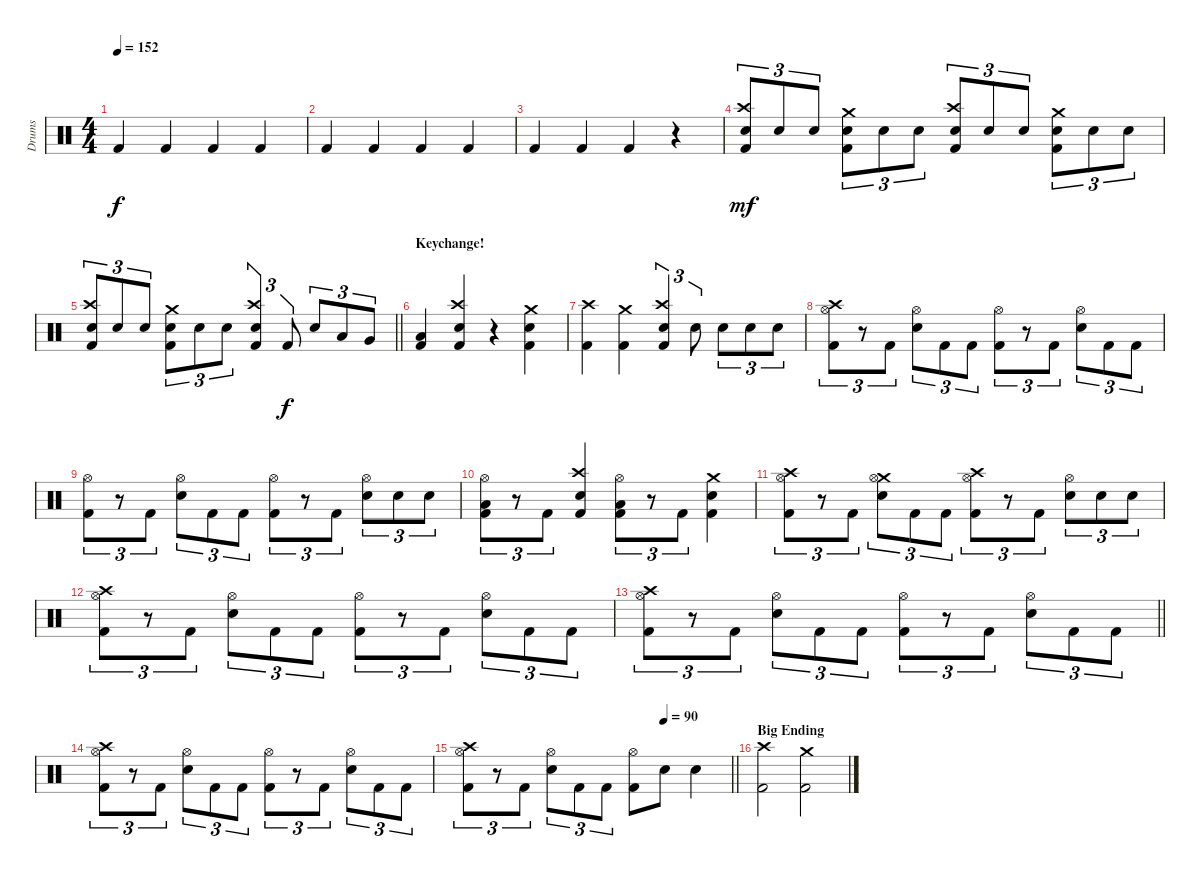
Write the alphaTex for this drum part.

\track ("Drums" "Drums") {instrument percussion}
\staff {score}
\articulation defaults
\ts (4 4)
\tempo 152
\clef neutral
\ks c "Kick (hit) 2".4{dy f} "Kick (hit) 2".4 "Kick (hit) 2".4 "Kick (hit) 2".4
|
"Kick (hit) 2".4 "Kick (hit) 2".4 "Kick (hit) 2".4 "Kick (hit) 2".4 |
"Kick (hit) 2".4 "Kick (hit) 2".4 "Kick (hit) 2".4 r.4 |
("Crash high (hit)" "Snare (hit) 2" "Kick (hit) 2").8{tu (3 2) dy mf} "Snare (hit) 2".8{tu (3 2)} "Snare (hit) 2".8{tu (3 2)} ("Crash medium (hit)" "Snare (hit) 2" "Kick (hit) 2").8{tu (3 2)} "Snare (hit) 2".8{tu (3 2)} "Snare (hit) 2".8{tu (3 2)} ("Crash high (hit)" "Snare (hit) 2" "Kick (hit) 2").8{tu (3 2)} "Snare (hit) 2".8{tu (3 2)} "Snare (hit) 2".8{tu (3 2)} ("Crash medium (hit)" "Snare (hit) 2" "Kick (hit) 2").8{tu (3 2)} "Snare (hit) 2".8{tu (3 2)} "Snare (hit) 2".8{tu (3 2)} |
\barLineRight lightlight
("Crash high (hit)" "Snare (hit) 2" "Kick (hit) 2").8{tu (3 2)} "Snare (hit) 2".8{tu (3 2)} "Snare (hit) 2".8{tu (3 2)} ("Crash medium (hit)" "Snare (hit) 2" "Kick (hit) 2").8{tu (3 2)} "Snare (hit) 2".8{tu (3 2)} "Snare (hit) 2".8{tu (3 2)} ("Crash high (hit)" "Snare (hit) 2" "Kick (hit) 2").4{tu (3 2)} "Kick (hit) 2".8{tu (3 2) dy f} "Snare (hit) 2".8{tu (3 2)} "Low Tom (hit)".8{tu (3 2)} "Very Low Tom (hit)".8{tu (3 2)} |
\section ("" "Keychange!")
("Low Floor Tom (hit)" "Kick (hit) 2").4 ("Crash high (hit)" "Snare (hit) 2" "Kick (hit) 2").4 r.4 ("Crash medium (hit)" "Snare (hit) 2" "Kick (hit) 2").4 |
("Crash high (hit)" "Kick (hit) 2").4 ("Crash medium (hit)" "Kick (hit) 2").4 ("Crash high (hit)" "Snare (hit) 2" "Kick (hit) 2").4{tu (3 2)} "Snare (hit) 2".8{tu (3 2)} "Snare (hit) 2".8{tu (3 2)} "Snare (hit) 2".8{tu (3 2)} "Snare (hit) 2".8{tu (3 2)} |
("Crash high (hit)" "Hi-Hat (open)" "Kick (hit) 2").8{tu (3 2)} r.8{tu (3 2)} "Kick (hit) 2".8{tu (3 2)} ("Hi-Hat (open)" "Snare (hit) 2").8{tu (3 2)} "Kick (hit) 2".8{tu (3 2)} "Kick (hit) 2".8{tu (3 2)} ("Hi-Hat (open)" "Kick (hit) 2").8{tu (3 2)} r.8{tu (3 2)} "Kick (hit) 2".8{tu (3 2)} ("Hi-Hat (open)" "Snare (hit) 2").8{tu (3 2)} "Kick (hit) 2".8{tu (3 2)} "Kick (hit) 2".8{tu (3 2)} |
("Hi-Hat (open)" "Kick (hit) 2").8{tu (3 2)} r.8{tu (3 2)} "Kick (hit) 2".8{tu (3 2)} ("Hi-Hat (open)" "Snare (hit) 2").8{tu (3 2)} "Kick (hit) 2".8{tu (3 2)} "Kick (hit) 2".8{tu (3 2)} ("Hi-Hat (open)" "Kick (hit) 2").8{tu (3 2)} r.8{tu (3 2)} "Kick (hit) 2".8{tu (3 2)} ("Hi-Hat (open)" "Snare (hit) 2").8{tu (3 2)} "Snare (hit) 2".8{tu (3 2)} "Snare (hit) 2".8{tu (3 2)} |
("Hi-Hat (open)" "Low Floor Tom (hit)" "Kick (hit) 2").8{tu (3 2)} r.8{tu (3 2)} "Kick (hit) 2".8{tu (3 2)} ("Crash high (hit)" "Snare (hit) 2" "Kick (hit) 2").4 ("Hi-Hat (open)" "Low Floor Tom (hit)" "Kick (hit) 2").8{tu (3 2)} r.8{tu (3 2)} "Kick (hit) 2".8{tu (3 2)} ("Crash medium (hit)" "Snare (hit) 2" "Kick (hit) 2").4 |
("Crash high (hit)" "Hi-Hat (open)" "Kick (hit) 2").8{tu (3 2)} r.8{tu (3 2)} "Kick (hit) 2".8{tu (3 2)} ("Crash medium (hit)" "Hi-Hat (open)" "Snare (hit) 2").8{tu (3 2)} "Kick (hit) 2".8{tu (3 2)} "Kick (hit) 2".8{tu (3 2)} ("Crash high (hit)" "Hi-Hat (open)" "Kick (hit) 2").8{tu (3 2)} r.8{tu (3 2)} "Kick (hit) 2".8{tu (3 2)} ("Hi-Hat (open)" "Snare (hit) 2").8{tu (3 2)} "Snare (hit) 2".8{tu (3 2)} "Snare (hit) 2".8{tu (3 2)} |
("Crash high (hit)" "Hi-Hat (open)" "Kick (hit) 2").8{tu (3 2)} r.8{tu (3 2)} "Kick (hit) 2".8{tu (3 2)} ("Hi-Hat (open)" "Snare (hit) 2").8{tu (3 2)} "Kick (hit) 2".8{tu (3 2)} "Kick (hit) 2".8{tu (3 2)} ("Hi-Hat (open)" "Kick (hit) 2").8{tu (3 2)} r.8{tu (3 2)} "Kick (hit) 2".8{tu (3 2)} ("Hi-Hat (open)" "Snare (hit) 2").8{tu (3 2)} "Kick (hit) 2".8{tu (3 2)} "Kick (hit) 2".8{tu (3 2)} |
\barLineRight lightlight
("Crash high (hit)" "Hi-Hat (open)" "Kick (hit) 2").8{tu (3 2)} r.8{tu (3 2)} "Kick (hit) 2".8{tu (3 2)} ("Hi-Hat (open)" "Snare (hit) 2").8{tu (3 2)} "Kick (hit) 2".8{tu (3 2)} "Kick (hit) 2".8{tu (3 2)} ("Hi-Hat (open)" "Kick (hit) 2").8{tu (3 2)} r.8{tu (3 2)} "Kick (hit) 2".8{tu (3 2)} ("Hi-Hat (open)" "Snare (hit) 2").8{tu (3 2)} "Kick (hit) 2".8{tu (3 2)} "Kick (hit) 2".8{tu (3 2)} |
("Crash high (hit)" "Hi-Hat (open)" "Kick (hit) 2").8{tu (3 2)} r.8{tu (3 2)} "Kick (hit) 2".8{tu (3 2)} ("Hi-Hat (open)" "Snare (hit) 2").8{tu (3 2)} "Kick (hit) 2".8{tu (3 2)} "Kick (hit) 2".8{tu (3 2)} ("Hi-Hat (open)" "Kick (hit) 2").8{tu (3 2)} r.8{tu (3 2)} "Kick (hit) 2".8{tu (3 2)} ("Hi-Hat (open)" "Snare (hit) 2").8{tu (3 2)} "Kick (hit) 2".8{tu (3 2)} "Kick (hit) 2".8{tu (3 2)} |
\tempo (90 0.75)
\barLineRight lightlight
("Crash high (hit)" "Hi-Hat (open)" "Kick (hit) 2").8{tu (3 2)} r.8{tu (3 2)} "Kick (hit) 2".8{tu (3 2)} ("Hi-Hat (open)" "Snare (hit) 2").8{tu (3 2)} "Kick (hit) 2".8{tu (3 2)} "Kick (hit) 2".8{tu (3 2)} ("Hi-Hat (open)" "Kick (hit) 2").8 "Snare (hit) 2".8 "Snare (hit) 2".4 |
\section ("" "Big Ending")
("Crash high (hit)" "Kick (hit) 2").2 ("Crash medium (hit)" "Kick (hit) 2").2
